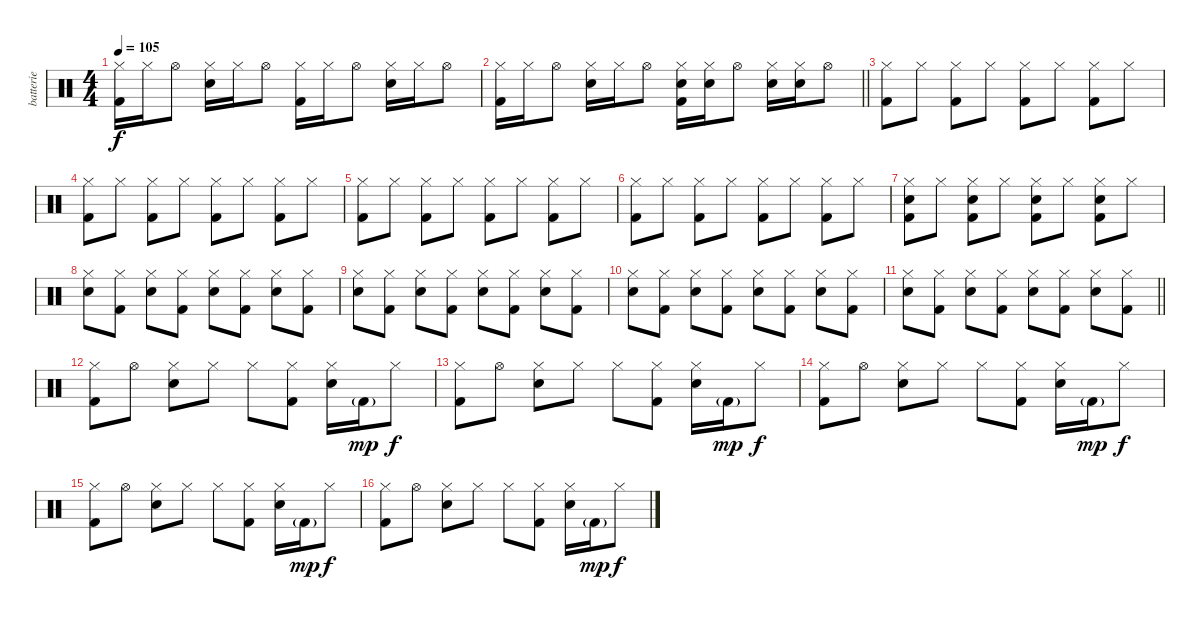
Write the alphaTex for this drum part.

\track ("batterie" "batterie") {instrument percussion}
\staff {score}
\articulation defaults
\ts (4 4)
\tempo 105
\clef neutral
\ks c
("Hi-Hat (closed)" "Kick (hit) 2").16{dy f} "Hi-Hat (closed)".16 "Hi-Hat (open)".8 ("Hi-Hat (closed)" "Snare (hit) 2").16 "Hi-Hat (closed)".16 "Hi-Hat (open)".8 ("Hi-Hat (closed)" "Kick (hit) 2").16 "Hi-Hat (closed)".16 "Hi-Hat (open)".8 ("Hi-Hat (closed)" "Snare (hit) 2").16 "Hi-Hat (closed)".16 "Hi-Hat (open)".8 |
\barLineRight lightlight
("Hi-Hat (closed)" "Kick (hit) 2").16 "Hi-Hat (closed)".16 "Hi-Hat (open)".8 ("Hi-Hat (closed)" "Snare (hit) 2").16 "Hi-Hat (closed)".16 "Hi-Hat (open)".8 ("Hi-Hat (closed)" "Snare (hit) 2" "Kick (hit) 2").16 ("Hi-Hat (closed)" "Snare (hit) 2").16 "Hi-Hat (open)".8 ("Hi-Hat (closed)" "Snare (hit) 2").16 ("Hi-Hat (closed)" "Snare (hit) 2").16 "Hi-Hat (open)".8 |
("Hi-Hat (closed)" "Kick (hit) 2").8 "Hi-Hat (closed)".8 ("Hi-Hat (closed)" "Kick (hit) 2").8 "Hi-Hat (closed)".8 ("Hi-Hat (closed)" "Kick (hit) 2").8 "Hi-Hat (closed)".8 ("Hi-Hat (closed)" "Kick (hit) 2").8 "Hi-Hat (closed)".8 |
("Hi-Hat (closed)" "Kick (hit) 2").8 "Hi-Hat (closed)".8 ("Hi-Hat (closed)" "Kick (hit) 2").8 "Hi-Hat (closed)".8 ("Hi-Hat (closed)" "Kick (hit) 2").8 "Hi-Hat (closed)".8 ("Hi-Hat (closed)" "Kick (hit) 2").8 "Hi-Hat (closed)".8 |
("Hi-Hat (closed)" "Kick (hit) 2").8 "Hi-Hat (closed)".8 ("Hi-Hat (closed)" "Kick (hit) 2").8 "Hi-Hat (closed)".8 ("Hi-Hat (closed)" "Kick (hit) 2").8 "Hi-Hat (closed)".8 ("Hi-Hat (closed)" "Kick (hit) 2").8 "Hi-Hat (closed)".8 |
("Hi-Hat (closed)" "Kick (hit) 2").8 "Hi-Hat (closed)".8 ("Hi-Hat (closed)" "Kick (hit) 2").8 "Hi-Hat (closed)".8 ("Hi-Hat (closed)" "Kick (hit) 2").8 "Hi-Hat (closed)".8 ("Hi-Hat (closed)" "Kick (hit) 2").8 "Hi-Hat (closed)".8 |
("Hi-Hat (closed)" "Snare (hit) 2" "Kick (hit) 2").8 "Hi-Hat (closed)".8 ("Hi-Hat (closed)" "Snare (hit) 2" "Kick (hit) 2").8 "Hi-Hat (closed)".8 ("Hi-Hat (closed)" "Snare (hit) 2" "Kick (hit) 2").8 "Hi-Hat (closed)".8 ("Hi-Hat (closed)" "Snare (hit) 2" "Kick (hit) 2").8 "Hi-Hat (closed)".8 |
("Hi-Hat (closed)" "Snare (hit) 2").8 ("Hi-Hat (closed)" "Kick (hit) 2").8 ("Hi-Hat (closed)" "Snare (hit) 2").8 ("Hi-Hat (closed)" "Kick (hit) 2").8 ("Hi-Hat (closed)" "Snare (hit) 2").8 ("Hi-Hat (closed)" "Kick (hit) 2").8 ("Hi-Hat (closed)" "Snare (hit) 2").8 ("Hi-Hat (closed)" "Kick (hit) 2").8 |
("Hi-Hat (closed)" "Snare (hit) 2").8 ("Hi-Hat (closed)" "Kick (hit) 2").8 ("Hi-Hat (closed)" "Snare (hit) 2").8 ("Hi-Hat (closed)" "Kick (hit) 2").8 ("Hi-Hat (closed)" "Snare (hit) 2").8 ("Hi-Hat (closed)" "Kick (hit) 2").8 ("Hi-Hat (closed)" "Snare (hit) 2").8 ("Hi-Hat (closed)" "Kick (hit) 2").8 |
("Hi-Hat (closed)" "Snare (hit) 2").8 ("Hi-Hat (closed)" "Kick (hit) 2").8 ("Hi-Hat (closed)" "Snare (hit) 2").8 ("Hi-Hat (closed)" "Kick (hit) 2").8 ("Hi-Hat (closed)" "Snare (hit) 2").8 ("Hi-Hat (closed)" "Kick (hit) 2").8 ("Hi-Hat (closed)" "Snare (hit) 2").8 ("Hi-Hat (closed)" "Kick (hit) 2").8 |
\barLineRight lightlight
("Hi-Hat (closed)" "Snare (hit) 2").8 ("Hi-Hat (closed)" "Kick (hit) 2").8 ("Hi-Hat (closed)" "Snare (hit) 2").8 ("Hi-Hat (closed)" "Kick (hit) 2").8 ("Hi-Hat (closed)" "Snare (hit) 2").8 ("Hi-Hat (closed)" "Kick (hit) 2").8 ("Hi-Hat (closed)" "Snare (hit) 2").8 ("Hi-Hat (closed)" "Kick (hit) 2").8 |
("Hi-Hat (closed)" "Kick (hit) 2").8 "Hi-Hat (open)".8 ("Hi-Hat (closed)" "Snare (hit) 2").8 "Hi-Hat (closed)".8 "Hi-Hat (closed)".8 ("Hi-Hat (closed)" "Kick (hit) 2").8 ("Hi-Hat (closed)" "Snare (hit) 2").16 "Kick (hit) 2"{g}.16{dy mp} "Hi-Hat (closed)".8{dy f} |
("Hi-Hat (closed)" "Kick (hit) 2").8 "Hi-Hat (open)".8 ("Hi-Hat (closed)" "Snare (hit) 2").8 "Hi-Hat (closed)".8 "Hi-Hat (closed)".8 ("Hi-Hat (closed)" "Kick (hit) 2").8 ("Hi-Hat (closed)" "Snare (hit) 2").16 "Kick (hit) 2"{g}.16{dy mp} "Hi-Hat (closed)".8{dy f} |
("Hi-Hat (closed)" "Kick (hit) 2").8 "Hi-Hat (open)".8 ("Hi-Hat (closed)" "Snare (hit) 2").8 "Hi-Hat (closed)".8 "Hi-Hat (closed)".8 ("Hi-Hat (closed)" "Kick (hit) 2").8 ("Hi-Hat (closed)" "Snare (hit) 2").16 "Kick (hit) 2"{g}.16{dy mp} "Hi-Hat (closed)".8{dy f} |
("Hi-Hat (closed)" "Kick (hit) 2").8 "Hi-Hat (open)".8 ("Hi-Hat (closed)" "Snare (hit) 2").8 "Hi-Hat (closed)".8 "Hi-Hat (closed)".8 ("Hi-Hat (closed)" "Kick (hit) 2").8 ("Hi-Hat (closed)" "Snare (hit) 2").16 "Kick (hit) 2"{g}.16{dy mp} "Hi-Hat (closed)".8{dy f} |
("Hi-Hat (closed)" "Kick (hit) 2").8 "Hi-Hat (open)".8 ("Hi-Hat (closed)" "Snare (hit) 2").8 "Hi-Hat (closed)".8 "Hi-Hat (closed)".8 ("Hi-Hat (closed)" "Kick (hit) 2").8 ("Hi-Hat (closed)" "Snare (hit) 2").16 "Kick (hit) 2"{g}.16{dy mp} "Hi-Hat (closed)".8{dy f}
